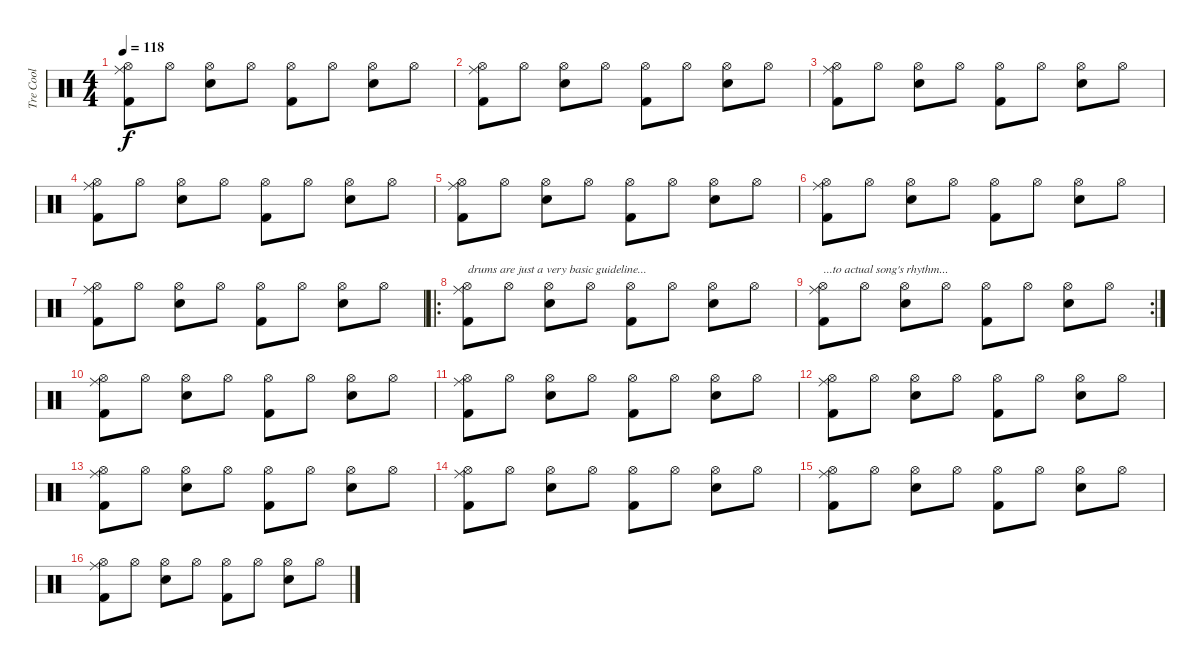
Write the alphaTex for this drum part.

\track ("Tre Cool" "Tre Cool") {instrument percussion}
\staff {score}
\articulation defaults
\ts (4 4)
\tempo 118
\clef neutral
\ks c
("Hi-Hat (open)" "Ride (middle)" "Kick (hit) 2").8{dy f} "Hi-Hat (open)".8 ("Hi-Hat (open)" "Snare (hit) 2").8 "Hi-Hat (open)".8 ("Hi-Hat (open)" "Kick (hit) 2").8 "Hi-Hat (open)".8 ("Hi-Hat (open)" "Snare (hit) 2").8 "Hi-Hat (open)".8 |
("Hi-Hat (open)" "Ride (middle)" "Kick (hit) 2").8 "Hi-Hat (open)".8 ("Hi-Hat (open)" "Snare (hit) 2").8 "Hi-Hat (open)".8 ("Hi-Hat (open)" "Kick (hit) 2").8 "Hi-Hat (open)".8 ("Hi-Hat (open)" "Snare (hit) 2").8 "Hi-Hat (open)".8 |
("Hi-Hat (open)" "Ride (middle)" "Kick (hit) 2").8 "Hi-Hat (open)".8 ("Hi-Hat (open)" "Snare (hit) 2").8 "Hi-Hat (open)".8 ("Hi-Hat (open)" "Kick (hit) 2").8 "Hi-Hat (open)".8 ("Hi-Hat (open)" "Snare (hit) 2").8 "Hi-Hat (open)".8 |
("Hi-Hat (open)" "Ride (middle)" "Kick (hit) 2").8 "Hi-Hat (open)".8 ("Hi-Hat (open)" "Snare (hit) 2").8 "Hi-Hat (open)".8 ("Hi-Hat (open)" "Kick (hit) 2").8 "Hi-Hat (open)".8 ("Hi-Hat (open)" "Snare (hit) 2").8 "Hi-Hat (open)".8 |
("Hi-Hat (open)" "Ride (middle)" "Kick (hit) 2").8 "Hi-Hat (open)".8 ("Hi-Hat (open)" "Snare (hit) 2").8 "Hi-Hat (open)".8 ("Hi-Hat (open)" "Kick (hit) 2").8 "Hi-Hat (open)".8 ("Hi-Hat (open)" "Snare (hit) 2").8 "Hi-Hat (open)".8 |
("Hi-Hat (open)" "Ride (middle)" "Kick (hit) 2").8 "Hi-Hat (open)".8 ("Hi-Hat (open)" "Snare (hit) 2").8 "Hi-Hat (open)".8 ("Hi-Hat (open)" "Kick (hit) 2").8 "Hi-Hat (open)".8 ("Hi-Hat (open)" "Snare (hit) 2").8 "Hi-Hat (open)".8 |
("Hi-Hat (open)" "Ride (middle)" "Kick (hit) 2").8 "Hi-Hat (open)".8 ("Hi-Hat (open)" "Snare (hit) 2").8 "Hi-Hat (open)".8 ("Hi-Hat (open)" "Kick (hit) 2").8 "Hi-Hat (open)".8 ("Hi-Hat (open)" "Snare (hit) 2").8 "Hi-Hat (open)".8 |
\ro
("Hi-Hat (open)" "Ride (middle)" "Kick (hit) 2").8{txt "drums are just a very basic guideline..."} "Hi-Hat (open)".8 ("Hi-Hat (open)" "Snare (hit) 2").8 "Hi-Hat (open)".8 ("Hi-Hat (open)" "Kick (hit) 2").8 "Hi-Hat (open)".8 ("Hi-Hat (open)" "Snare (hit) 2").8 "Hi-Hat (open)".8 |
\rc 2
("Hi-Hat (open)" "Ride (middle)" "Kick (hit) 2").8{txt "...to actual song's rhythm..."} "Hi-Hat (open)".8 ("Hi-Hat (open)" "Snare (hit) 2").8 "Hi-Hat (open)".8 ("Hi-Hat (open)" "Kick (hit) 2").8 "Hi-Hat (open)".8 ("Hi-Hat (open)" "Snare (hit) 2").8 "Hi-Hat (open)".8 |
("Hi-Hat (open)" "Ride (middle)" "Kick (hit) 2").8 "Hi-Hat (open)".8 ("Hi-Hat (open)" "Snare (hit) 2").8 "Hi-Hat (open)".8 ("Hi-Hat (open)" "Kick (hit) 2").8 "Hi-Hat (open)".8 ("Hi-Hat (open)" "Snare (hit) 2").8 "Hi-Hat (open)".8 |
("Hi-Hat (open)" "Ride (middle)" "Kick (hit) 2").8 "Hi-Hat (open)".8 ("Hi-Hat (open)" "Snare (hit) 2").8 "Hi-Hat (open)".8 ("Hi-Hat (open)" "Kick (hit) 2").8 "Hi-Hat (open)".8 ("Hi-Hat (open)" "Snare (hit) 2").8 "Hi-Hat (open)".8 |
("Hi-Hat (open)" "Ride (middle)" "Kick (hit) 2").8 "Hi-Hat (open)".8 ("Hi-Hat (open)" "Snare (hit) 2").8 "Hi-Hat (open)".8 ("Hi-Hat (open)" "Kick (hit) 2").8 "Hi-Hat (open)".8 ("Hi-Hat (open)" "Snare (hit) 2").8 "Hi-Hat (open)".8 |
("Hi-Hat (open)" "Ride (middle)" "Kick (hit) 2").8 "Hi-Hat (open)".8 ("Hi-Hat (open)" "Snare (hit) 2").8 "Hi-Hat (open)".8 ("Hi-Hat (open)" "Kick (hit) 2").8 "Hi-Hat (open)".8 ("Hi-Hat (open)" "Snare (hit) 2").8 "Hi-Hat (open)".8 |
("Hi-Hat (open)" "Ride (middle)" "Kick (hit) 2").8 "Hi-Hat (open)".8 ("Hi-Hat (open)" "Snare (hit) 2").8 "Hi-Hat (open)".8 ("Hi-Hat (open)" "Kick (hit) 2").8 "Hi-Hat (open)".8 ("Hi-Hat (open)" "Snare (hit) 2").8 "Hi-Hat (open)".8 |
("Hi-Hat (open)" "Ride (middle)" "Kick (hit) 2").8 "Hi-Hat (open)".8 ("Hi-Hat (open)" "Snare (hit) 2").8 "Hi-Hat (open)".8 ("Hi-Hat (open)" "Kick (hit) 2").8 "Hi-Hat (open)".8 ("Hi-Hat (open)" "Snare (hit) 2").8 "Hi-Hat (open)".8 |
("Hi-Hat (open)" "Ride (middle)" "Kick (hit) 2").8 "Hi-Hat (open)".8 ("Hi-Hat (open)" "Snare (hit) 2").8 "Hi-Hat (open)".8 ("Hi-Hat (open)" "Kick (hit) 2").8 "Hi-Hat (open)".8 ("Hi-Hat (open)" "Snare (hit) 2").8 "Hi-Hat (open)".8
